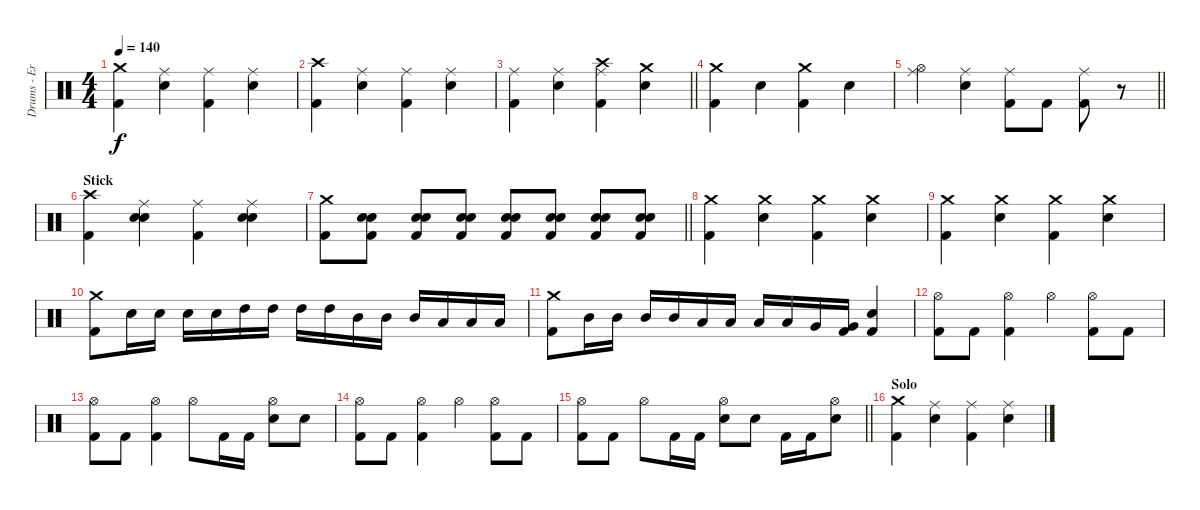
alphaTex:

\track ("Drums - Eric Young" "Drums - Er") {instrument percussion}
\staff {score}
\articulation defaults
\ts (4 4)
\tempo 140
\clef neutral
\ks c
("Crash medium (hit)" "Kick (hit) 2").4{dy f} ("Ride (middle)" "Electric Snare (hit)").4 ("Ride (middle)" "Kick (hit) 2").4 ("Ride (middle)" "Electric Snare (hit)").4 |
("Crash high (hit)" "Kick (hit) 2").4 ("Ride (middle)" "Electric Snare (hit)").4 ("Ride (middle)" "Kick (hit) 2").4 ("Ride (middle)" "Electric Snare (hit)").4 |
\barLineRight lightlight
("Ride (middle)" "Kick (hit) 2").4 ("Ride (middle)" "Electric Snare (hit)").4 ("Crash high (hit)" "Ride (middle)" "Kick (hit) 2").4 ("Crash medium (hit)" "Electric Snare (hit)").4 |
("Crash medium (hit)" "Kick (hit) 2").4 "Electric Snare (hit)".4 ("Crash medium (hit)" "Kick (hit) 2").4 "Electric Snare (hit)".4 |
\barLineRight lightlight
("Ride (middle)" "Hi-Hat (open)").4 ("Ride (middle)" "Electric Snare (hit)").4 ("Ride (middle)" "Kick (hit) 2").8 "Kick (hit) 2".8 ("Ride (middle)" "Kick (hit) 2").8 r.8 |
\section ("" "Stick")
("Crash high (hit)" "Kick (hit) 2").4 ("Ride (middle)" "Electric Snare (hit)" "Snare (hit) 2").4 ("Ride (middle)" "Kick (hit) 2").4 ("Ride (middle)" "Electric Snare (hit)" "Snare (hit) 2").4 |
\barLineRight lightlight
("Crash medium (hit)" "Kick (hit) 2").8 ("Electric Snare (hit)" "Snare (hit) 2" "Kick (hit) 2").8 ("Electric Snare (hit)" "Snare (hit) 2" "Kick (hit) 2").8 ("Electric Snare (hit)" "Snare (hit) 2" "Kick (hit) 2").8 ("Electric Snare (hit)" "Snare (hit) 2" "Kick (hit) 2").8 ("Electric Snare (hit)" "Snare (hit) 2" "Kick (hit) 2").8 ("Electric Snare (hit)" "Snare (hit) 2" "Kick (hit) 2").8 ("Electric Snare (hit)" "Snare (hit) 2" "Kick (hit) 2").8 |
("Crash medium (hit)" "Kick (hit) 2").4 ("Crash medium (hit)" "Electric Snare (hit)").4 ("Crash medium (hit)" "Kick (hit) 2").4 ("Crash medium (hit)" "Electric Snare (hit)").4 |
("Crash medium (hit)" "Kick (hit) 2").4 ("Crash medium (hit)" "Electric Snare (hit)").4 ("Crash medium (hit)" "Kick (hit) 2").4 ("Crash medium (hit)" "Electric Snare (hit)").4 |
("Crash medium (hit)" "Kick (hit) 2").8 "Electric Snare (hit)".16 "Electric Snare (hit)".16 "Electric Snare (hit)".16 "Electric Snare (hit)".16 "High Tom (hit)".16 "High Tom (hit)".16 "High Tom (hit)".16 "High Tom (hit)".16 "Mid Tom (hit)".16 "Mid Tom (hit)".16 "Mid Tom (hit)".16 "Low Tom (hit)".16 "Low Tom (hit)".16 "Low Tom (hit)".16 |
("Crash medium (hit)" "Kick (hit) 2").8 "Mid Tom (hit)".16 "Mid Tom (hit)".16 "Mid Tom (hit)".16 "Mid Tom (hit)".16 "Low Tom (hit)".16 "Low Tom (hit)".16 "Low Tom (hit)".16 "Low Tom (hit)".16 "Very Low Tom (hit)".16 ("Very Low Tom (hit)" "Kick (hit) 2").16 ("Electric Snare (hit)" "Kick (hit) 2").4 |
("Hi-Hat (open)" "Kick (hit) 2").8 "Kick (hit) 2".8 ("Hi-Hat (open)" "Kick (hit) 2").4 "Hi-Hat (open)".4 ("Hi-Hat (open)" "Kick (hit) 2").8 "Kick (hit) 2".8 |
("Hi-Hat (open)" "Kick (hit) 2").8 "Kick (hit) 2".8 ("Hi-Hat (open)" "Kick (hit) 2").4 "Hi-Hat (open)".8 "Kick (hit) 2".16 "Kick (hit) 2".16 ("Hi-Hat (open)" "Electric Snare (hit)").8 "Electric Snare (hit)".8 |
("Hi-Hat (open)" "Kick (hit) 2").8 "Kick (hit) 2".8 ("Hi-Hat (open)" "Kick (hit) 2").4 "Hi-Hat (open)".4 ("Hi-Hat (open)" "Kick (hit) 2").8 "Kick (hit) 2".8 |
\barLineRight lightlight
("Hi-Hat (open)" "Kick (hit) 2").8 "Kick (hit) 2".8 "Hi-Hat (open)".8 "Kick (hit) 2".16 "Kick (hit) 2".16 ("Hi-Hat (open)" "Electric Snare (hit)").8 "Electric Snare (hit)".8 "Kick (hit) 2".16 "Kick (hit) 2".16 ("Hi-Hat (open)" "Electric Snare (hit)").8 |
\section ("" "Solo")
("Crash medium (hit)" "Kick (hit) 2").4 ("Ride (middle)" "Electric Snare (hit)").4 ("Ride (middle)" "Kick (hit) 2").4 ("Ride (middle)" "Electric Snare (hit)").4
